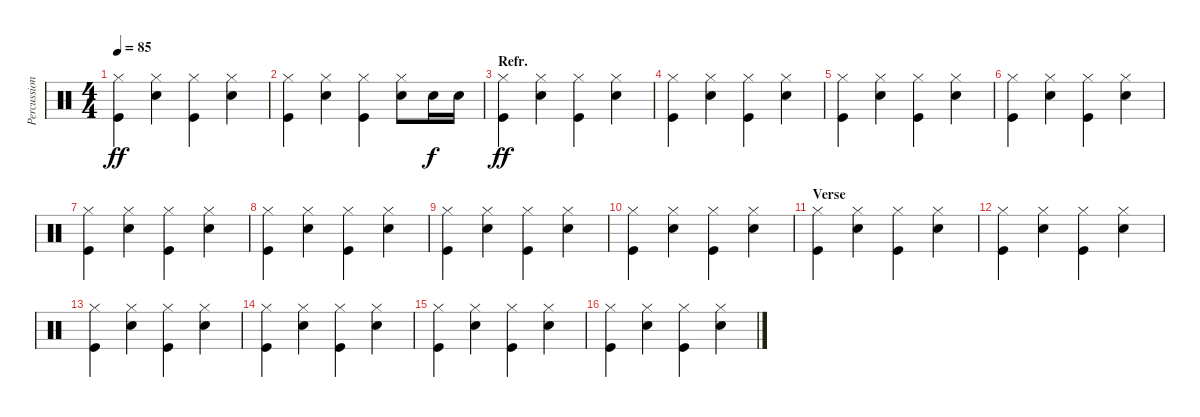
\track ("Percussion" "Percussion") {instrument percussion}
\staff {score}
\articulation defaults
\ts (4 4)
\tempo 85
\clef neutral
\ks c
("Hi-Hat (closed)" "Kick (hit)").4{dy ff} ("Hi-Hat (closed)" "Snare (hit) 2").4 ("Hi-Hat (closed)" "Kick (hit)").4 ("Hi-Hat (closed)" "Snare (hit) 2").4 |
("Hi-Hat (closed)" "Kick (hit)").4 ("Hi-Hat (closed)" "Snare (hit) 2").4 ("Hi-Hat (closed)" "Kick (hit)").4 ("Hi-Hat (closed)" "Snare (hit) 2").8 "Snare (hit) 2".16{dy f} "Snare (hit) 2".16 |
\section ("" "Refr.")
("Hi-Hat (closed)" "Kick (hit)").4{dy ff} ("Hi-Hat (closed)" "Snare (hit) 2").4 ("Hi-Hat (closed)" "Kick (hit)").4 ("Hi-Hat (closed)" "Snare (hit) 2").4 |
("Hi-Hat (closed)" "Kick (hit)").4 ("Hi-Hat (closed)" "Snare (hit) 2").4 ("Hi-Hat (closed)" "Kick (hit)").4 ("Hi-Hat (closed)" "Snare (hit) 2").4 |
("Hi-Hat (closed)" "Kick (hit)").4 ("Hi-Hat (closed)" "Snare (hit) 2").4 ("Hi-Hat (closed)" "Kick (hit)").4 ("Hi-Hat (closed)" "Snare (hit) 2").4 |
("Hi-Hat (closed)" "Kick (hit)").4 ("Hi-Hat (closed)" "Snare (hit) 2").4 ("Hi-Hat (closed)" "Kick (hit)").4 ("Hi-Hat (closed)" "Snare (hit) 2").4 |
("Hi-Hat (closed)" "Kick (hit)").4 ("Hi-Hat (closed)" "Snare (hit) 2").4 ("Hi-Hat (closed)" "Kick (hit)").4 ("Hi-Hat (closed)" "Snare (hit) 2").4 |
("Hi-Hat (closed)" "Kick (hit)").4 ("Hi-Hat (closed)" "Snare (hit) 2").4 ("Hi-Hat (closed)" "Kick (hit)").4 ("Hi-Hat (closed)" "Snare (hit) 2").4 |
("Hi-Hat (closed)" "Kick (hit)").4 ("Hi-Hat (closed)" "Snare (hit) 2").4 ("Hi-Hat (closed)" "Kick (hit)").4 ("Hi-Hat (closed)" "Snare (hit) 2").4 |
("Hi-Hat (closed)" "Kick (hit)").4 ("Hi-Hat (closed)" "Snare (hit) 2").4 ("Hi-Hat (closed)" "Kick (hit)").4 ("Hi-Hat (closed)" "Snare (hit) 2").4 |
\section ("" "Verse")
("Hi-Hat (closed)" "Kick (hit)").4 ("Hi-Hat (closed)" "Snare (hit) 2").4 ("Hi-Hat (closed)" "Kick (hit)").4 ("Hi-Hat (closed)" "Snare (hit) 2").4 |
("Hi-Hat (closed)" "Kick (hit)").4 ("Hi-Hat (closed)" "Snare (hit) 2").4 ("Hi-Hat (closed)" "Kick (hit)").4 ("Hi-Hat (closed)" "Snare (hit) 2").4 |
("Hi-Hat (closed)" "Kick (hit)").4 ("Hi-Hat (closed)" "Snare (hit) 2").4 ("Hi-Hat (closed)" "Kick (hit)").4 ("Hi-Hat (closed)" "Snare (hit) 2").4 |
("Hi-Hat (closed)" "Kick (hit)").4 ("Hi-Hat (closed)" "Snare (hit) 2").4 ("Hi-Hat (closed)" "Kick (hit)").4 ("Hi-Hat (closed)" "Snare (hit) 2").4 |
("Hi-Hat (closed)" "Kick (hit)").4 ("Hi-Hat (closed)" "Snare (hit) 2").4 ("Hi-Hat (closed)" "Kick (hit)").4 ("Hi-Hat (closed)" "Snare (hit) 2").4 |
("Hi-Hat (closed)" "Kick (hit)").4 ("Hi-Hat (closed)" "Snare (hit) 2").4 ("Hi-Hat (closed)" "Kick (hit)").4 ("Hi-Hat (closed)" "Snare (hit) 2").4
